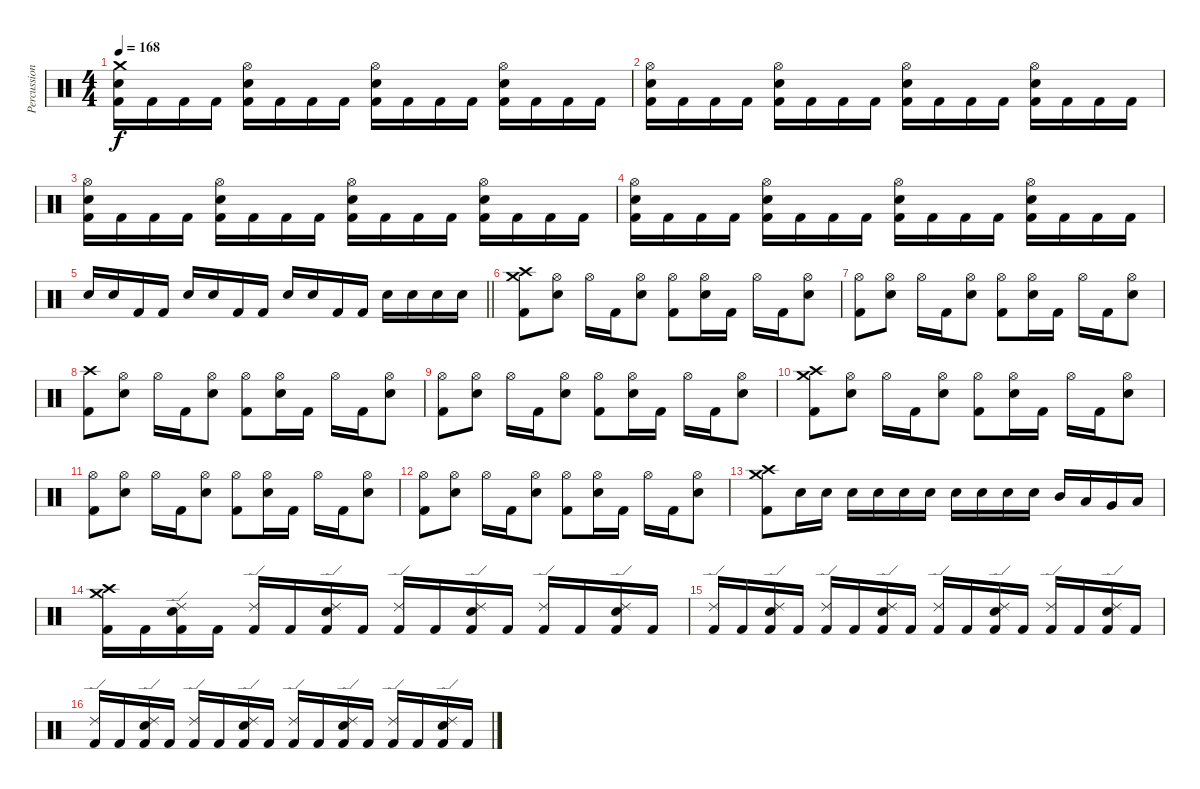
\track ("Percussions" "Percussion") {instrument percussion}
\staff {score}
\articulation defaults
\ts (4 4)
\tempo 168
\clef neutral
\ks c
("Crash medium (hit)" "Snare (hit) 2" "Kick (hit) 2").16{dy f} "Kick (hit) 2".16 "Kick (hit) 2".16 "Kick (hit) 2".16 ("Hi-Hat (open)" "Snare (hit) 2" "Kick (hit) 2").16 "Kick (hit) 2".16 "Kick (hit) 2".16 "Kick (hit) 2".16 ("Hi-Hat (open)" "Snare (hit) 2" "Kick (hit) 2").16 "Kick (hit) 2".16 "Kick (hit) 2".16 "Kick (hit) 2".16 ("Hi-Hat (open)" "Snare (hit) 2" "Kick (hit) 2").16 "Kick (hit) 2".16 "Kick (hit) 2".16 "Kick (hit) 2".16 |
("Hi-Hat (open)" "Snare (hit) 2" "Kick (hit) 2").16 "Kick (hit) 2".16 "Kick (hit) 2".16 "Kick (hit) 2".16 ("Hi-Hat (open)" "Snare (hit) 2" "Kick (hit) 2").16 "Kick (hit) 2".16 "Kick (hit) 2".16 "Kick (hit) 2".16 ("Hi-Hat (open)" "Snare (hit) 2" "Kick (hit) 2").16 "Kick (hit) 2".16 "Kick (hit) 2".16 "Kick (hit) 2".16 ("Hi-Hat (open)" "Snare (hit) 2" "Kick (hit) 2").16 "Kick (hit) 2".16 "Kick (hit) 2".16 "Kick (hit) 2".16 |
("Hi-Hat (open)" "Snare (hit) 2" "Kick (hit) 2").16 "Kick (hit) 2".16 "Kick (hit) 2".16 "Kick (hit) 2".16 ("Hi-Hat (open)" "Snare (hit) 2" "Kick (hit) 2").16 "Kick (hit) 2".16 "Kick (hit) 2".16 "Kick (hit) 2".16 ("Hi-Hat (open)" "Snare (hit) 2" "Kick (hit) 2").16 "Kick (hit) 2".16 "Kick (hit) 2".16 "Kick (hit) 2".16 ("Hi-Hat (open)" "Snare (hit) 2" "Kick (hit) 2").16 "Kick (hit) 2".16 "Kick (hit) 2".16 "Kick (hit) 2".16 |
("Hi-Hat (open)" "Snare (hit) 2" "Kick (hit) 2").16 "Kick (hit) 2".16 "Kick (hit) 2".16 "Kick (hit) 2".16 ("Hi-Hat (open)" "Snare (hit) 2" "Kick (hit) 2").16 "Kick (hit) 2".16 "Kick (hit) 2".16 "Kick (hit) 2".16 ("Hi-Hat (open)" "Snare (hit) 2" "Kick (hit) 2").16 "Kick (hit) 2".16 "Kick (hit) 2".16 "Kick (hit) 2".16 ("Hi-Hat (open)" "Snare (hit) 2" "Kick (hit) 2").16 "Kick (hit) 2".16 "Kick (hit) 2".16 "Kick (hit) 2".16 |
\barLineRight lightlight "Snare (hit) 2".16 "Snare (hit) 2".16 "Kick (hit) 2".16 "Kick (hit) 2".16 "Snare (hit) 2".16 "Snare (hit) 2".16 "Kick (hit) 2".16 "Kick (hit) 2".16 "Snare (hit) 2".16 "Snare (hit) 2".16 "Kick (hit) 2".16 "Kick (hit) 2".16 "Snare (hit) 2".16 "Snare (hit) 2".16 "Snare (hit) 2".16 "Snare (hit) 2".16
|
("Crash medium (hit)" "Crash high (hit)" "Kick (hit) 2").8 ("Hi-Hat (open)" "Snare (hit) 2").8 "Hi-Hat (open)".16 "Kick (hit) 2".16 ("Hi-Hat (open)" "Snare (hit) 2").8 ("Hi-Hat (open)" "Kick (hit) 2").8 ("Hi-Hat (open)" "Snare (hit) 2").16 "Kick (hit) 2".16 "Hi-Hat (open)".16 "Kick (hit) 2".16 ("Hi-Hat (open)" "Snare (hit) 2").8 |
("Hi-Hat (open)" "Kick (hit) 2").8 ("Hi-Hat (open)" "Snare (hit) 2").8 "Hi-Hat (open)".16 "Kick (hit) 2".16 ("Hi-Hat (open)" "Snare (hit) 2").8 ("Hi-Hat (open)" "Kick (hit) 2").8 ("Hi-Hat (open)" "Snare (hit) 2").16 "Kick (hit) 2".16 "Hi-Hat (open)".16 "Kick (hit) 2".16 ("Hi-Hat (open)" "Snare (hit) 2").8 |
("Crash high (hit)" "Kick (hit) 2").8 ("Hi-Hat (open)" "Snare (hit) 2").8 "Hi-Hat (open)".16 "Kick (hit) 2".16 ("Hi-Hat (open)" "Snare (hit) 2").8 ("Hi-Hat (open)" "Kick (hit) 2").8 ("Hi-Hat (open)" "Snare (hit) 2").16 "Kick (hit) 2".16 "Hi-Hat (open)".16 "Kick (hit) 2".16 ("Hi-Hat (open)" "Snare (hit) 2").8 |
("Hi-Hat (open)" "Kick (hit) 2").8 ("Hi-Hat (open)" "Snare (hit) 2").8 "Hi-Hat (open)".16 "Kick (hit) 2".16 ("Hi-Hat (open)" "Snare (hit) 2").8 ("Hi-Hat (open)" "Kick (hit) 2").8 ("Hi-Hat (open)" "Snare (hit) 2").16 "Kick (hit) 2".16 "Hi-Hat (open)".16 "Kick (hit) 2".16 ("Hi-Hat (open)" "Snare (hit) 2").8 |
("Crash medium (hit)" "Crash high (hit)" "Kick (hit) 2").8 ("Hi-Hat (open)" "Snare (hit) 2").8 "Hi-Hat (open)".16 "Kick (hit) 2".16 ("Hi-Hat (open)" "Snare (hit) 2").8 ("Hi-Hat (open)" "Kick (hit) 2").8 ("Hi-Hat (open)" "Snare (hit) 2").16 "Kick (hit) 2".16 "Hi-Hat (open)".16 "Kick (hit) 2".16 ("Hi-Hat (open)" "Snare (hit) 2").8 |
("Hi-Hat (open)" "Kick (hit) 2").8 ("Hi-Hat (open)" "Snare (hit) 2").8 "Hi-Hat (open)".16 "Kick (hit) 2".16 ("Hi-Hat (open)" "Snare (hit) 2").8 ("Hi-Hat (open)" "Kick (hit) 2").8 ("Hi-Hat (open)" "Snare (hit) 2").16 "Kick (hit) 2".16 "Hi-Hat (open)".16 "Kick (hit) 2".16 ("Hi-Hat (open)" "Snare (hit) 2").8 |
("Hi-Hat (open)" "Kick (hit) 2").8 ("Hi-Hat (open)" "Snare (hit) 2").8 "Hi-Hat (open)".16 "Kick (hit) 2".16 ("Hi-Hat (open)" "Snare (hit) 2").8 ("Hi-Hat (open)" "Kick (hit) 2").8 ("Hi-Hat (open)" "Snare (hit) 2").16 "Kick (hit) 2".16 "Hi-Hat (open)".16 "Kick (hit) 2".16 ("Hi-Hat (open)" "Snare (hit) 2").8 |
("Crash medium (hit)" "Crash high (hit)" "Kick (hit) 2").8 "Snare (hit) 2".16 "Snare (hit) 2".16 "Snare (hit) 2".16 "Snare (hit) 2".16 "Snare (hit) 2".16 "Snare (hit) 2".16 "Snare (hit) 2".16 "Snare (hit) 2".16 "Snare (hit) 2".16 "Snare (hit) 2".16 "Mid Tom (hit)".16 "Low Tom (hit)".16 "Very Low Tom (hit)".16 "Low Floor Tom (hit)".16 |
("Crash medium (hit)" "Crash high (hit)" "Kick (hit) 2").16 "Kick (hit) 2".16 ("Ride (edge) 2" "Snare (hit) 2" "Kick (hit) 2").16 "Kick (hit) 2".16 ("Ride (edge) 2" "Kick (hit) 2").16 "Kick (hit) 2".16 ("Ride (edge) 2" "Snare (hit) 2" "Kick (hit) 2").16 "Kick (hit) 2".16 ("Ride (edge) 2" "Kick (hit) 2").16 "Kick (hit) 2".16 ("Ride (edge) 2" "Snare (hit) 2" "Kick (hit) 2").16 "Kick (hit) 2".16 ("Ride (edge) 2" "Kick (hit) 2").16 "Kick (hit) 2".16 ("Ride (edge) 2" "Snare (hit) 2" "Kick (hit) 2").16 "Kick (hit) 2".16 |
("Ride (edge) 2" "Kick (hit) 2").16 "Kick (hit) 2".16 ("Ride (edge) 2" "Snare (hit) 2" "Kick (hit) 2").16 "Kick (hit) 2".16 ("Ride (edge) 2" "Kick (hit) 2").16 "Kick (hit) 2".16 ("Ride (edge) 2" "Snare (hit) 2" "Kick (hit) 2").16 "Kick (hit) 2".16 ("Ride (edge) 2" "Kick (hit) 2").16 "Kick (hit) 2".16 ("Ride (edge) 2" "Snare (hit) 2" "Kick (hit) 2").16 "Kick (hit) 2".16 ("Ride (edge) 2" "Kick (hit) 2").16 "Kick (hit) 2".16 ("Ride (edge) 2" "Snare (hit) 2" "Kick (hit) 2").16 "Kick (hit) 2".16 |
("Ride (edge) 2" "Kick (hit) 2").16 "Kick (hit) 2".16 ("Ride (edge) 2" "Snare (hit) 2" "Kick (hit) 2").16 "Kick (hit) 2".16 ("Ride (edge) 2" "Kick (hit) 2").16 "Kick (hit) 2".16 ("Ride (edge) 2" "Snare (hit) 2" "Kick (hit) 2").16 "Kick (hit) 2".16 ("Ride (edge) 2" "Kick (hit) 2").16 "Kick (hit) 2".16 ("Ride (edge) 2" "Snare (hit) 2" "Kick (hit) 2").16 "Kick (hit) 2".16 ("Ride (edge) 2" "Kick (hit) 2").16 "Kick (hit) 2".16 ("Ride (edge) 2" "Snare (hit) 2" "Kick (hit) 2").16 "Kick (hit) 2".16
